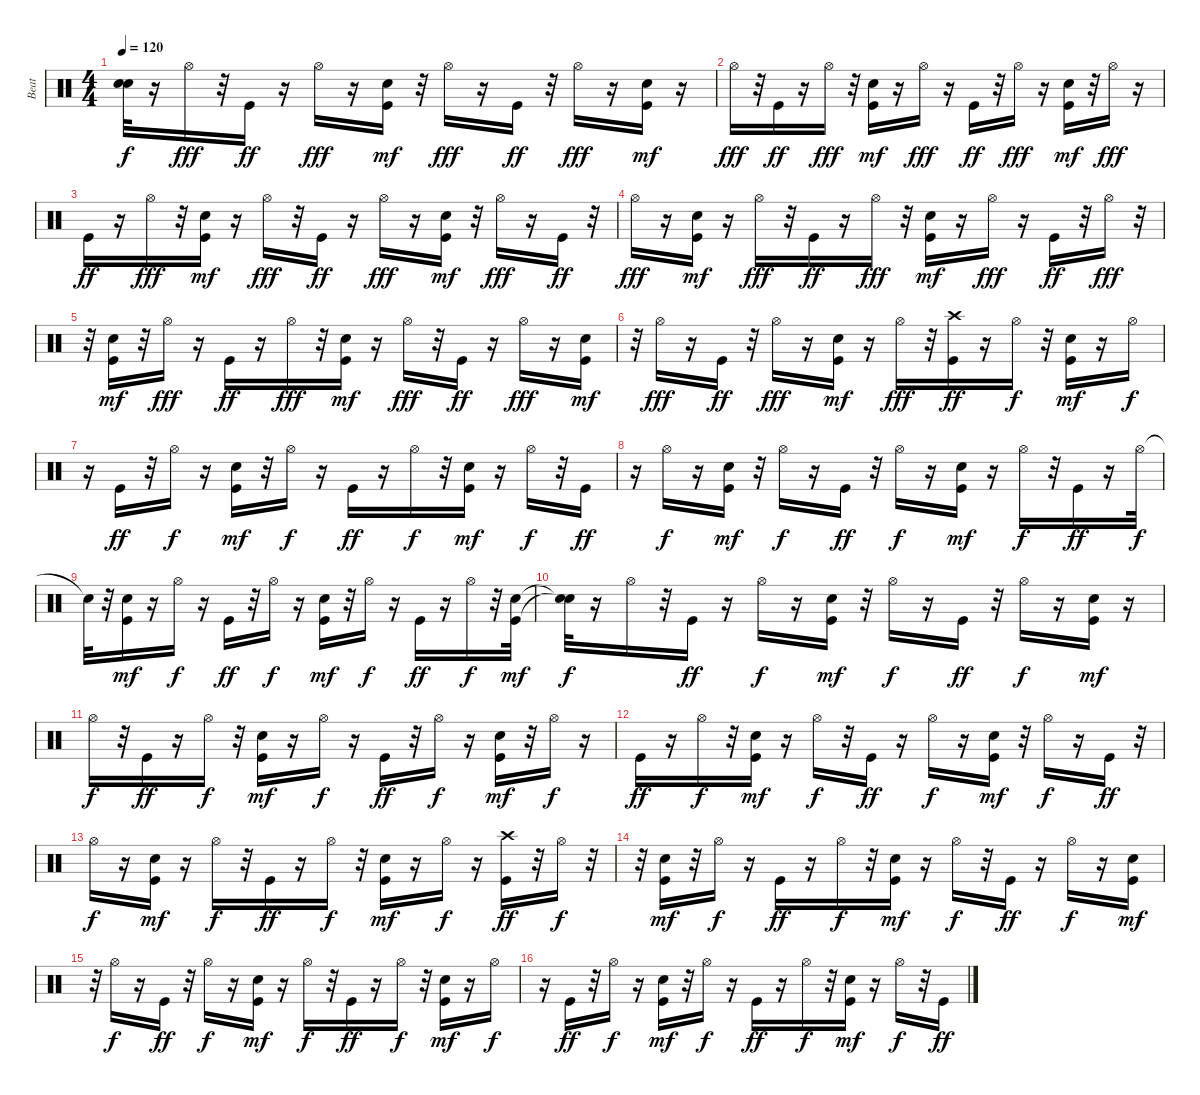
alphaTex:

\track ("Beat" "Beat") {instrument percussion}
\staff {score}
\articulation defaults
\ts (4 4)
\tempo 120
\clef neutral
\ks c
("Snare (hit)"{t} "Snare (hit)"{t}).32{dy f} r.16 "Hi-Hat (open)".16{dy fff} r.32 "Kick (hit)".16{dy ff} r.16 "Hi-Hat (open)".16{dy fff} r.16 ("Kick (hit)" "Hand Clap (hit)").16{dy mf} r.32 "Hi-Hat (open)".16{dy fff} r.16 "Kick (hit)".16{dy ff} r.32 "Hi-Hat (open)".16{dy fff} r.16 ("Kick (hit)" "Hand Clap (hit)").16{dy mf} r.16 |
"Hi-Hat (open)".16{dy fff} r.32 "Kick (hit)".16{dy ff} r.16 "Hi-Hat (open)".16{dy fff} r.32 ("Kick (hit)" "Hand Clap (hit)").16{dy mf} r.16 "Hi-Hat (open)".16{dy fff} r.16 "Kick (hit)".16{dy ff} r.32 "Hi-Hat (open)".16{dy fff} r.16 ("Kick (hit)" "Hand Clap (hit)").16{dy mf} r.32 "Hi-Hat (open)".16{dy fff} r.16 |
"Kick (hit)".16{dy ff} r.16 "Hi-Hat (open)".16{dy fff} r.32 ("Kick (hit)" "Hand Clap (hit)").16{dy mf} r.16 "Hi-Hat (open)".16{dy fff} r.32 "Kick (hit)".16{dy ff} r.16 "Hi-Hat (open)".16{dy fff} r.16 ("Kick (hit)" "Hand Clap (hit)").16{dy mf} r.32 "Hi-Hat (open)".16{dy fff} r.16 "Kick (hit)".16{dy ff} r.32 |
"Hi-Hat (open)".16{dy fff} r.16 ("Kick (hit)" "Hand Clap (hit)").16{dy mf} r.16 "Hi-Hat (open)".16{dy fff} r.32 "Kick (hit)".16{dy ff} r.16 "Hi-Hat (open)".16{dy fff} r.32 ("Kick (hit)" "Hand Clap (hit)").16{dy mf} r.16 "Hi-Hat (open)".16{dy fff} r.16 "Kick (hit)".16{dy ff} r.32 "Hi-Hat (open)".16{dy fff} r.32 |
r.32 ("Kick (hit)" "Hand Clap (hit)").16{dy mf} r.32 "Hi-Hat (open)".16{dy fff} r.16 "Kick (hit)".16{dy ff} r.16 "Hi-Hat (open)".16{dy fff} r.32 ("Kick (hit)" "Hand Clap (hit)").16{dy mf} r.16 "Hi-Hat (open)".16{dy fff} r.32 "Kick (hit)".16{dy ff} r.16 "Hi-Hat (open)".16{dy fff} r.16 ("Kick (hit)" "Hand Clap (hit)").16{dy mf} |
r.32 "Hi-Hat (open)".16{dy fff} r.16 "Kick (hit)".16{dy ff} r.32 "Hi-Hat (open)".16{dy fff} r.16 ("Kick (hit)" "Hand Clap (hit)").16{dy mf} r.16 "Hi-Hat (open)".16{dy fff} r.32 ("Kick (hit)" "Crash high (hit)").16{dy ff} r.16 "Hi-Hat (open)".16{dy f} r.32 ("Kick (hit)" "Hand Clap (hit)").16{dy mf} r.16 "Hi-Hat (open)".16{dy f} |
r.16 "Kick (hit)".16{dy ff} r.32 "Hi-Hat (open)".16{dy f} r.16 ("Kick (hit)" "Hand Clap (hit)").16{dy mf} r.32 "Hi-Hat (open)".16{dy f} r.16 "Kick (hit)".16{dy ff} r.16 "Hi-Hat (open)".16{dy f} r.32 ("Kick (hit)" "Hand Clap (hit)").16{dy mf} r.16 "Hi-Hat (open)".16{dy f} r.32 "Kick (hit)".16{dy ff} |
r.16 "Hi-Hat (open)".16{dy f} r.16 ("Kick (hit)" "Hand Clap (hit)").16{dy mf} r.32 "Hi-Hat (open)".16{dy f} r.16 "Kick (hit)".16{dy ff} r.32 "Hi-Hat (open)".16{dy f} r.16 ("Kick (hit)" "Hand Clap (hit)").16{dy mf} r.16 "Hi-Hat (open)".16{dy f} r.32 "Kick (hit)".16{dy ff} r.16 "Hi-Hat (open)".32{dy f} |
"Snare (hit)"{t}.32 r.32 ("Kick (hit)" "Hand Clap (hit)").16{dy mf} r.16 "Hi-Hat (open)".16{dy f} r.16 "Kick (hit)".16{dy ff} r.32 "Hi-Hat (open)".16{dy f} r.16 ("Kick (hit)" "Hand Clap (hit)").16{dy mf} r.32 "Hi-Hat (open)".16{dy f} r.16 "Kick (hit)".16{dy ff} r.16 "Hi-Hat (open)".16{dy f} r.32 ("Kick (hit)" "Hand Clap (hit)").32{dy mf} |
("Snare (hit)"{t} "Snare (hit)"{t}).32{dy f} r.16 "Hi-Hat (open)".16 r.32 "Kick (hit)".16{dy ff} r.16 "Hi-Hat (open)".16{dy f} r.16 ("Kick (hit)" "Hand Clap (hit)").16{dy mf} r.32 "Hi-Hat (open)".16{dy f} r.16 "Kick (hit)".16{dy ff} r.32 "Hi-Hat (open)".16{dy f} r.16 ("Kick (hit)" "Hand Clap (hit)").16{dy mf} r.16 |
"Hi-Hat (open)".16{dy f} r.32 "Kick (hit)".16{dy ff} r.16 "Hi-Hat (open)".16{dy f} r.32 ("Kick (hit)" "Hand Clap (hit)").16{dy mf} r.16 "Hi-Hat (open)".16{dy f} r.16 "Kick (hit)".16{dy ff} r.32 "Hi-Hat (open)".16{dy f} r.16 ("Kick (hit)" "Hand Clap (hit)").16{dy mf} r.32 "Hi-Hat (open)".16{dy f} r.16 |
"Kick (hit)".16{dy ff} r.16 "Hi-Hat (open)".16{dy f} r.32 ("Kick (hit)" "Hand Clap (hit)").16{dy mf} r.16 "Hi-Hat (open)".16{dy f} r.32 "Kick (hit)".16{dy ff} r.16 "Hi-Hat (open)".16{dy f} r.16 ("Kick (hit)" "Hand Clap (hit)").16{dy mf} r.32 "Hi-Hat (open)".16{dy f} r.16 "Kick (hit)".16{dy ff} r.32 |
"Hi-Hat (open)".16{dy f} r.16 ("Kick (hit)" "Hand Clap (hit)").16{dy mf} r.16 "Hi-Hat (open)".16{dy f} r.32 "Kick (hit)".16{dy ff} r.16 "Hi-Hat (open)".16{dy f} r.32 ("Kick (hit)" "Hand Clap (hit)").16{dy mf} r.16 "Hi-Hat (open)".16{dy f} r.16 ("Kick (hit)" "Crash high (hit)").16{dy ff} r.32 "Hi-Hat (open)".16{dy f} r.32 |
r.32 ("Kick (hit)" "Hand Clap (hit)").16{dy mf} r.32 "Hi-Hat (open)".16{dy f} r.16 "Kick (hit)".16{dy ff} r.16 "Hi-Hat (open)".16{dy f} r.32 ("Kick (hit)" "Hand Clap (hit)").16{dy mf} r.16 "Hi-Hat (open)".16{dy f} r.32 "Kick (hit)".16{dy ff} r.16 "Hi-Hat (open)".16{dy f} r.16 ("Kick (hit)" "Hand Clap (hit)").16{dy mf} |
r.32 "Hi-Hat (open)".16{dy f} r.16 "Kick (hit)".16{dy ff} r.32 "Hi-Hat (open)".16{dy f} r.16 ("Kick (hit)" "Hand Clap (hit)").16{dy mf} r.16 "Hi-Hat (open)".16{dy f} r.32 "Kick (hit)".16{dy ff} r.16 "Hi-Hat (open)".16{dy f} r.32 ("Kick (hit)" "Hand Clap (hit)").16{dy mf} r.16 "Hi-Hat (open)".16{dy f} |
r.16 "Kick (hit)".16{dy ff} r.32 "Hi-Hat (open)".16{dy f} r.16 ("Kick (hit)" "Hand Clap (hit)").16{dy mf} r.32 "Hi-Hat (open)".16{dy f} r.16 "Kick (hit)".16{dy ff} r.16 "Hi-Hat (open)".16{dy f} r.32 ("Kick (hit)" "Hand Clap (hit)").16{dy mf} r.16 "Hi-Hat (open)".16{dy f} r.32 "Kick (hit)".16{dy ff}
